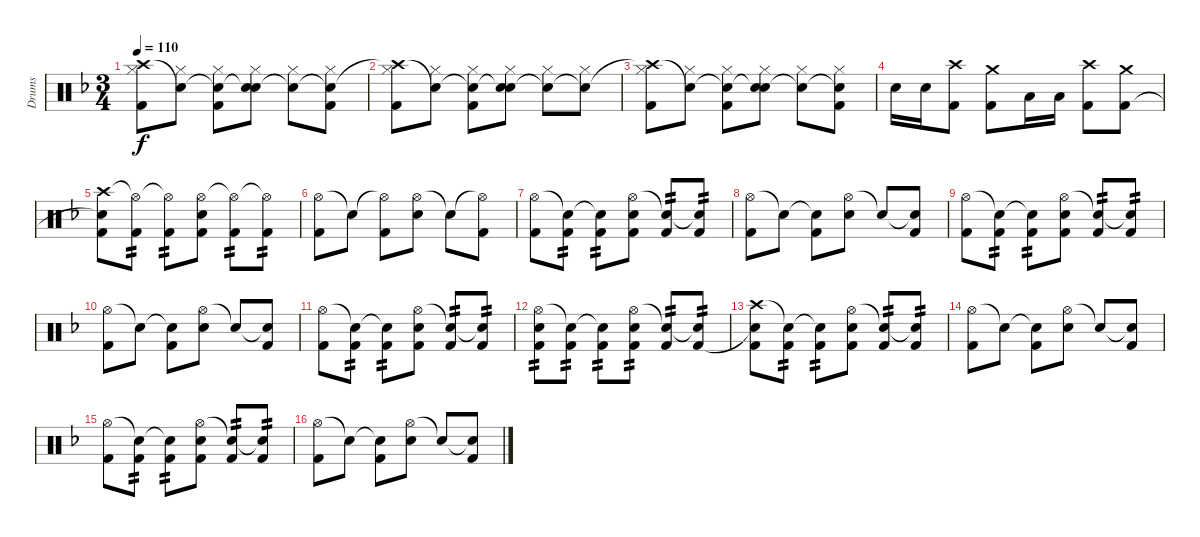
\track ("Drums" "Drums") {instrument percussion}
\staff {score}
\articulation defaults
\ts (3 4)
\tempo 110
\clef neutral
\ks dminor
("Crash high (hit)"{t} "Hi-Hat (closed)" "Kick (hit) 2").8{dy f} ("Snare (hit)"{t} "Hi-Hat (closed)").8 ("Snare (hit)"{t} "Hi-Hat (closed)" "Kick (hit) 2").8 ("Snare (hit)"{t} "Hi-Hat (closed)" "Snare (hit) 2").8 ("Snare (hit)"{t} "Hi-Hat (closed)").8 ("Snare (hit)"{t} "Hi-Hat (closed)" "Kick (hit) 2").8 |
("Crash high (hit)"{t} "Hi-Hat (closed)" "Kick (hit) 2").8 ("Snare (hit)"{t} "Hi-Hat (closed)").8 ("Snare (hit)"{t} "Hi-Hat (closed)" "Kick (hit) 2").8 ("Snare (hit)"{t} "Hi-Hat (closed)" "Snare (hit) 2").8 ("Snare (hit)"{t} "Hi-Hat (closed)").8 ("Snare (hit)"{t} "Hi-Hat (closed)").8 |
("Crash high (hit)"{t} "Hi-Hat (closed)" "Kick (hit) 2").8 ("Snare (hit)"{t} "Hi-Hat (closed)").8 ("Snare (hit)"{t} "Hi-Hat (closed)" "Kick (hit) 2").8 ("Snare (hit)"{t} "Hi-Hat (closed)" "Snare (hit) 2").8 ("Snare (hit)"{t} "Hi-Hat (closed)").8 ("Snare (hit)"{t} "Hi-Hat (closed)" "Kick (hit) 2").8 |
"Snare (hit) 2".16 "Snare (hit) 2".16 ("Crash high (hit)" "Kick (hit) 2").8 ("Crash medium (hit)" "Kick (hit) 2").8 "Low Tom (hit)".16 "Low Tom (hit)".16 ("Crash high (hit)" "Kick (hit) 2").8 ("Crash medium (hit)" "Kick (hit) 2").8 |
("Crash high (hit)" "Snare (hit)"{t} "Kick (hit) 2").8 ("Hi-Hat (open)"{t} "Kick (hit) 2").8{tp 2} ("Hi-Hat (open)"{t} "Kick (hit) 2").8{tp 2} ("Hi-Hat (open)" "Snare (hit) 2" "Kick (hit) 2").8 ("Hi-Hat (open)"{t} "Kick (hit) 2").8{tp 2} ("Hi-Hat (open)"{t} "Kick (hit) 2").8{tp 2} |
("Hi-Hat (open)" "Kick (hit) 2").8 "Snare (hit)"{t}.8 ("Hi-Hat (open)"{t} "Kick (hit) 2").8 ("Hi-Hat (open)" "Snare (hit) 2").8 "Snare (hit)"{t}.8 ("Hi-Hat (open)"{t} "Kick (hit) 2").8 |
("Hi-Hat (open)" "Kick (hit) 2").8 ("Snare (hit)"{t} "Kick (hit) 2").8{tp 2} ("Snare (hit)"{t} "Kick (hit) 2").8{tp 2} ("Hi-Hat (open)" "Snare (hit) 2" "Kick (hit) 2").8 ("Snare (hit)"{t} "Kick (hit) 2").8{tp 2} ("Snare (hit)"{t} "Kick (hit) 2").8{tp 2} |
("Hi-Hat (open)" "Kick (hit) 2").8 "Snare (hit)"{t}.8 ("Snare (hit)"{t} "Kick (hit) 2").8 ("Hi-Hat (open)" "Snare (hit) 2").8 "Snare (hit)"{t}.8 ("Snare (hit)"{t} "Kick (hit) 2").8 |
("Hi-Hat (open)" "Kick (hit) 2").8 ("Snare (hit)"{t} "Kick (hit) 2").8{tp 2} ("Snare (hit)"{t} "Kick (hit) 2").8{tp 2} ("Hi-Hat (open)" "Snare (hit) 2" "Kick (hit) 2").8 ("Snare (hit)"{t} "Kick (hit) 2").8{tp 2} ("Snare (hit)"{t} "Kick (hit) 2").8{tp 2} |
("Hi-Hat (open)" "Kick (hit) 2").8 "Snare (hit)"{t}.8 ("Snare (hit)"{t} "Kick (hit) 2").8 ("Hi-Hat (open)" "Snare (hit) 2").8 "Snare (hit)"{t}.8 ("Snare (hit)"{t} "Kick (hit) 2").8 |
("Hi-Hat (open)" "Kick (hit) 2").8 ("Snare (hit)"{t} "Kick (hit) 2").8{tp 2} ("Snare (hit)"{t} "Kick (hit) 2").8{tp 2} ("Hi-Hat (open)" "Snare (hit) 2" "Kick (hit) 2").8 ("Snare (hit)"{t} "Kick (hit) 2").8{tp 2} ("Snare (hit)"{t} "Kick (hit) 2").8{tp 2} |
("Hi-Hat (open)" "Snare (hit) 2" "Kick (hit) 2").8{tp 2} ("Snare (hit)"{t} "Kick (hit) 2").8{tp 2} ("Snare (hit)"{t} "Kick (hit) 2").8{tp 2} ("Hi-Hat (open)" "Snare (hit) 2" "Kick (hit) 2").8{tp 2} ("Snare (hit)"{t} "Kick (hit) 2").8{tp 2} ("Snare (hit)"{t} "Kick (hit) 2").8{tp 2} |
("Crash high (hit)" "Snare (hit)"{t} "Kick (hit) 2").8 ("Snare (hit)"{t} "Kick (hit) 2").8{tp 2} ("Snare (hit)"{t} "Kick (hit) 2").8{tp 2} ("Hi-Hat (open)" "Snare (hit) 2" "Kick (hit) 2").8 ("Snare (hit)"{t} "Kick (hit) 2").8{tp 2} ("Snare (hit)"{t} "Kick (hit) 2").8{tp 2} |
("Hi-Hat (open)" "Kick (hit) 2").8 "Snare (hit)"{t}.8 ("Snare (hit)"{t} "Kick (hit) 2").8 ("Hi-Hat (open)" "Snare (hit) 2").8 "Snare (hit)"{t}.8 ("Snare (hit)"{t} "Kick (hit) 2").8 |
("Hi-Hat (open)" "Kick (hit) 2").8 ("Snare (hit)"{t} "Kick (hit) 2").8{tp 2} ("Snare (hit)"{t} "Kick (hit) 2").8{tp 2} ("Hi-Hat (open)" "Snare (hit) 2" "Kick (hit) 2").8 ("Snare (hit)"{t} "Kick (hit) 2").8{tp 2} ("Snare (hit)"{t} "Kick (hit) 2").8{tp 2} |
("Hi-Hat (open)" "Kick (hit) 2").8 "Snare (hit)"{t}.8 ("Snare (hit)"{t} "Kick (hit) 2").8 ("Hi-Hat (open)" "Snare (hit) 2").8 "Snare (hit)"{t}.8 ("Snare (hit)"{t} "Kick (hit) 2").8
